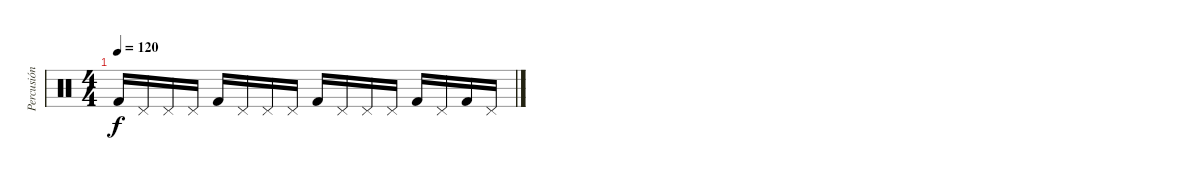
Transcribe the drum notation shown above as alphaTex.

\track ("Percusión" "Percusión") {instrument percussion}
\staff {score}
\articulation defaults
\ts (4 4)
\tempo 120
\clef neutral
\ks c "Kick (hit) 2".16{dy f} "Pedal Hi-Hat (hit)".16 "Pedal Hi-Hat (hit)".16 "Pedal Hi-Hat (hit)".16 "Kick (hit) 2".16 "Pedal Hi-Hat (hit)".16 "Pedal Hi-Hat (hit)".16 "Pedal Hi-Hat (hit)".16 "Kick (hit) 2".16 "Pedal Hi-Hat (hit)".16 "Pedal Hi-Hat (hit)".16 "Pedal Hi-Hat (hit)".16 "Kick (hit) 2".16 "Pedal Hi-Hat (hit)".16 "Kick (hit) 2".16 "Pedal Hi-Hat (hit)".16
